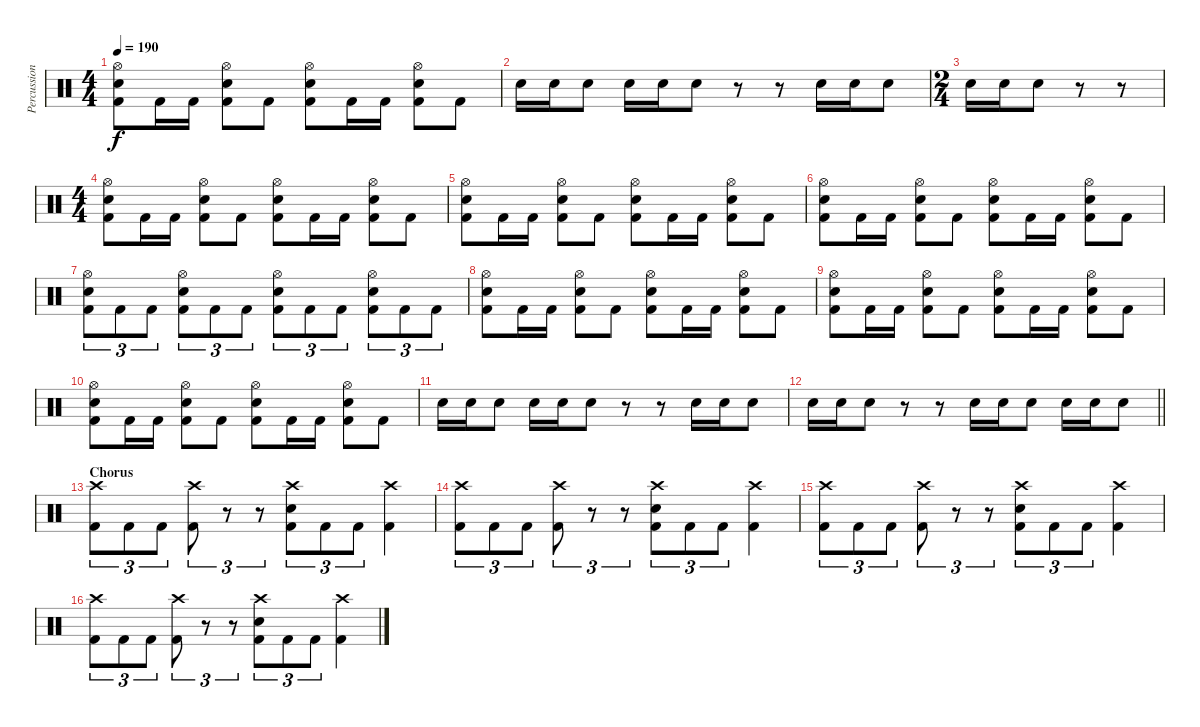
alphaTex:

\track ("Percussion" "Percussion") {instrument percussion}
\staff {score}
\articulation defaults
\ts (4 4)
\tempo 190
\clef neutral
\ks c
("Hi-Hat (open)" "Electric Snare (hit)" "Kick (hit) 2").8{dy f} "Kick (hit) 2".16 "Kick (hit) 2".16 ("Hi-Hat (open)" "Electric Snare (hit)" "Kick (hit) 2").8 "Kick (hit) 2".8 ("Hi-Hat (open)" "Electric Snare (hit)" "Kick (hit) 2").8 "Kick (hit) 2".16 "Kick (hit) 2".16 ("Hi-Hat (open)" "Electric Snare (hit)" "Kick (hit) 2").8 "Kick (hit) 2".8 |
"Electric Snare (hit)".16 "Electric Snare (hit)".16 "Electric Snare (hit)".8 "Electric Snare (hit)".16 "Electric Snare (hit)".16 "Electric Snare (hit)".8 r.8 r.8 "Electric Snare (hit)".16 "Electric Snare (hit)".16 "Electric Snare (hit)".8 |
\ts (2 4)
"Electric Snare (hit)".16 "Electric Snare (hit)".16 "Electric Snare (hit)".8 r.8 r.8 |
\ts (4 4)
("Hi-Hat (open)" "Electric Snare (hit)" "Kick (hit) 2").8 "Kick (hit) 2".16 "Kick (hit) 2".16 ("Hi-Hat (open)" "Electric Snare (hit)" "Kick (hit) 2").8 "Kick (hit) 2".8 ("Hi-Hat (open)" "Electric Snare (hit)" "Kick (hit) 2").8 "Kick (hit) 2".16 "Kick (hit) 2".16 ("Hi-Hat (open)" "Electric Snare (hit)" "Kick (hit) 2").8 "Kick (hit) 2".8 |
("Hi-Hat (open)" "Electric Snare (hit)" "Kick (hit) 2").8 "Kick (hit) 2".16 "Kick (hit) 2".16 ("Hi-Hat (open)" "Electric Snare (hit)" "Kick (hit) 2").8 "Kick (hit) 2".8 ("Hi-Hat (open)" "Electric Snare (hit)" "Kick (hit) 2").8 "Kick (hit) 2".16 "Kick (hit) 2".16 ("Hi-Hat (open)" "Electric Snare (hit)" "Kick (hit) 2").8 "Kick (hit) 2".8 |
("Hi-Hat (open)" "Electric Snare (hit)" "Kick (hit) 2").8 "Kick (hit) 2".16 "Kick (hit) 2".16 ("Hi-Hat (open)" "Electric Snare (hit)" "Kick (hit) 2").8 "Kick (hit) 2".8 ("Hi-Hat (open)" "Electric Snare (hit)" "Kick (hit) 2").8 "Kick (hit) 2".16 "Kick (hit) 2".16 ("Hi-Hat (open)" "Electric Snare (hit)" "Kick (hit) 2").8 "Kick (hit) 2".8 |
("Hi-Hat (open)" "Electric Snare (hit)" "Kick (hit) 2").8{tu (3 2)} "Kick (hit) 2".8{tu (3 2)} "Kick (hit) 2".8{tu (3 2)} ("Hi-Hat (open)" "Electric Snare (hit)" "Kick (hit) 2").8{tu (3 2)} "Kick (hit) 2".8{tu (3 2)} "Kick (hit) 2".8{tu (3 2)} ("Hi-Hat (open)" "Electric Snare (hit)" "Kick (hit) 2").8{tu (3 2)} "Kick (hit) 2".8{tu (3 2)} "Kick (hit) 2".8{tu (3 2)} ("Hi-Hat (open)" "Electric Snare (hit)" "Kick (hit) 2").8{tu (3 2)} "Kick (hit) 2".8{tu (3 2)} "Kick (hit) 2".8{tu (3 2)} |
("Hi-Hat (open)" "Electric Snare (hit)" "Kick (hit) 2").8 "Kick (hit) 2".16 "Kick (hit) 2".16 ("Hi-Hat (open)" "Electric Snare (hit)" "Kick (hit) 2").8 "Kick (hit) 2".8 ("Hi-Hat (open)" "Electric Snare (hit)" "Kick (hit) 2").8 "Kick (hit) 2".16 "Kick (hit) 2".16 ("Hi-Hat (open)" "Electric Snare (hit)" "Kick (hit) 2").8 "Kick (hit) 2".8 |
("Hi-Hat (open)" "Electric Snare (hit)" "Kick (hit) 2").8 "Kick (hit) 2".16 "Kick (hit) 2".16 ("Hi-Hat (open)" "Electric Snare (hit)" "Kick (hit) 2").8 "Kick (hit) 2".8 ("Hi-Hat (open)" "Electric Snare (hit)" "Kick (hit) 2").8 "Kick (hit) 2".16 "Kick (hit) 2".16 ("Hi-Hat (open)" "Electric Snare (hit)" "Kick (hit) 2").8 "Kick (hit) 2".8 |
("Hi-Hat (open)" "Electric Snare (hit)" "Kick (hit) 2").8 "Kick (hit) 2".16 "Kick (hit) 2".16 ("Hi-Hat (open)" "Electric Snare (hit)" "Kick (hit) 2").8 "Kick (hit) 2".8 ("Hi-Hat (open)" "Electric Snare (hit)" "Kick (hit) 2").8 "Kick (hit) 2".16 "Kick (hit) 2".16 ("Hi-Hat (open)" "Electric Snare (hit)" "Kick (hit) 2").8 "Kick (hit) 2".8 |
"Electric Snare (hit)".16 "Electric Snare (hit)".16 "Electric Snare (hit)".8 "Electric Snare (hit)".16 "Electric Snare (hit)".16 "Electric Snare (hit)".8 r.8 r.8 "Electric Snare (hit)".16 "Electric Snare (hit)".16 "Electric Snare (hit)".8 |
\barLineRight lightlight "Electric Snare (hit)".16 "Electric Snare (hit)".16 "Electric Snare (hit)".8
r.8 r.8 "Electric Snare (hit)".16 "Electric Snare (hit)".16 "Electric Snare (hit)".8 "Electric Snare (hit)".16 "Electric Snare (hit)".16 "Electric Snare (hit)".8 |
\section ("" "Chorus")
("Crash high (hit)" "Kick (hit) 2").8{tu (3 2)} "Kick (hit) 2".8{tu (3 2)} "Kick (hit) 2".8{tu (3 2)} ("Crash high (hit)" "Kick (hit) 2").8{tu (3 2)} r.8{tu (3 2)} r.8{tu (3 2)} ("Crash high (hit)" "Electric Snare (hit)" "Kick (hit) 2").8{tu (3 2)} "Kick (hit) 2".8{tu (3 2)} "Kick (hit) 2".8{tu (3 2)} ("Crash high (hit)" "Kick (hit) 2").4 |
("Crash high (hit)" "Kick (hit) 2").8{tu (3 2)} "Kick (hit) 2".8{tu (3 2)} "Kick (hit) 2".8{tu (3 2)} ("Crash high (hit)" "Kick (hit) 2").8{tu (3 2)} r.8{tu (3 2)} r.8{tu (3 2)} ("Crash high (hit)" "Electric Snare (hit)" "Kick (hit) 2").8{tu (3 2)} "Kick (hit) 2".8{tu (3 2)} "Kick (hit) 2".8{tu (3 2)} ("Crash high (hit)" "Kick (hit) 2").4 |
("Crash high (hit)" "Kick (hit) 2").8{tu (3 2)} "Kick (hit) 2".8{tu (3 2)} "Kick (hit) 2".8{tu (3 2)} ("Crash high (hit)" "Kick (hit) 2").8{tu (3 2)} r.8{tu (3 2)} r.8{tu (3 2)} ("Crash high (hit)" "Electric Snare (hit)" "Kick (hit) 2").8{tu (3 2)} "Kick (hit) 2".8{tu (3 2)} "Kick (hit) 2".8{tu (3 2)} ("Crash high (hit)" "Kick (hit) 2").4 |
("Crash high (hit)" "Kick (hit) 2").8{tu (3 2)} "Kick (hit) 2".8{tu (3 2)} "Kick (hit) 2".8{tu (3 2)} ("Crash high (hit)" "Kick (hit) 2").8{tu (3 2)} r.8{tu (3 2)} r.8{tu (3 2)} ("Crash high (hit)" "Electric Snare (hit)" "Kick (hit) 2").8{tu (3 2)} "Kick (hit) 2".8{tu (3 2)} "Kick (hit) 2".8{tu (3 2)} ("Crash high (hit)" "Kick (hit) 2").4
